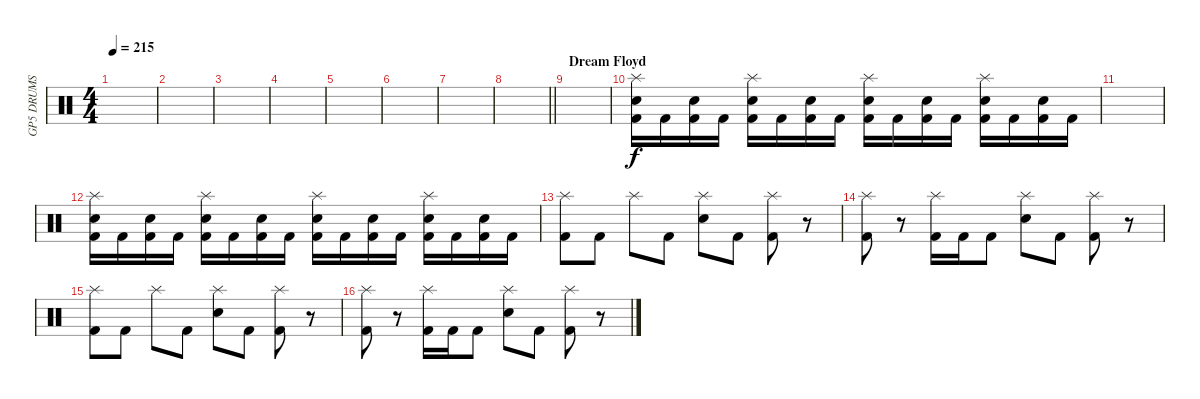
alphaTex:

\track ("GP5 DRUMS" "GP5 DRUMS") {instrument percussion}
\staff {score}
\articulation defaults
\ts (4 4)
\tempo 215
\clef neutral
\ks c
|
|
|
|
|
|
|
\barLineRight lightlight
|
\section ("" "Dream Floyd")
|
("Splash (hit)" "Electric Snare (hit)" "Kick (hit) 2").16 "Kick (hit) 2".16 ("Electric Snare (hit)" "Kick (hit) 2").16 "Kick (hit) 2".16 ("Splash (hit)" "Electric Snare (hit)" "Kick (hit) 2").16 "Kick (hit) 2".16 ("Electric Snare (hit)" "Kick (hit) 2").16 "Kick (hit) 2".16 ("Splash (hit)" "Electric Snare (hit)" "Kick (hit) 2").16 "Kick (hit) 2".16 ("Electric Snare (hit)" "Kick (hit) 2").16 "Kick (hit) 2".16 ("Splash (hit)" "Electric Snare (hit)" "Kick (hit) 2").16 "Kick (hit) 2".16 ("Electric Snare (hit)" "Kick (hit) 2").16 "Kick (hit) 2".16 |
|
("Splash (hit)" "Electric Snare (hit)" "Kick (hit) 2").16 "Kick (hit) 2".16 ("Electric Snare (hit)" "Kick (hit) 2").16 "Kick (hit) 2".16 ("Splash (hit)" "Electric Snare (hit)" "Kick (hit) 2").16 "Kick (hit) 2".16 ("Electric Snare (hit)" "Kick (hit) 2").16 "Kick (hit) 2".16 ("Splash (hit)" "Electric Snare (hit)" "Kick (hit) 2").16 "Kick (hit) 2".16 ("Electric Snare (hit)" "Kick (hit) 2").16 "Kick (hit) 2".16 ("Splash (hit)" "Electric Snare (hit)" "Kick (hit) 2").16 "Kick (hit) 2".16 ("Electric Snare (hit)" "Kick (hit) 2").16 "Kick (hit) 2".16 |
("Splash (hit)" "Kick (hit) 2").8 "Kick (hit) 2".8 "Splash (hit)".8 "Kick (hit) 2".8 ("Splash (hit)" "Electric Snare (hit)").8 "Kick (hit) 2".8 ("Splash (hit)" "Kick (hit) 2").8 r.8 |
("Splash (hit)" "Kick (hit) 2").8 r.8 ("Splash (hit)" "Kick (hit) 2").16 "Kick (hit) 2".16 "Kick (hit) 2".8 ("Splash (hit)" "Electric Snare (hit)").8 "Kick (hit) 2".8 ("Splash (hit)" "Kick (hit) 2").8 r.8 |
("Splash (hit)" "Kick (hit) 2").8 "Kick (hit) 2".8 "Splash (hit)".8 "Kick (hit) 2".8 ("Splash (hit)" "Electric Snare (hit)").8 "Kick (hit) 2".8 ("Splash (hit)" "Kick (hit) 2").8 r.8 |
("Splash (hit)" "Kick (hit) 2").8 r.8 ("Splash (hit)" "Kick (hit) 2").16 "Kick (hit) 2".16 "Kick (hit) 2".8 ("Splash (hit)" "Electric Snare (hit)").8 "Kick (hit) 2".8 ("Splash (hit)" "Kick (hit) 2").8 r.8
